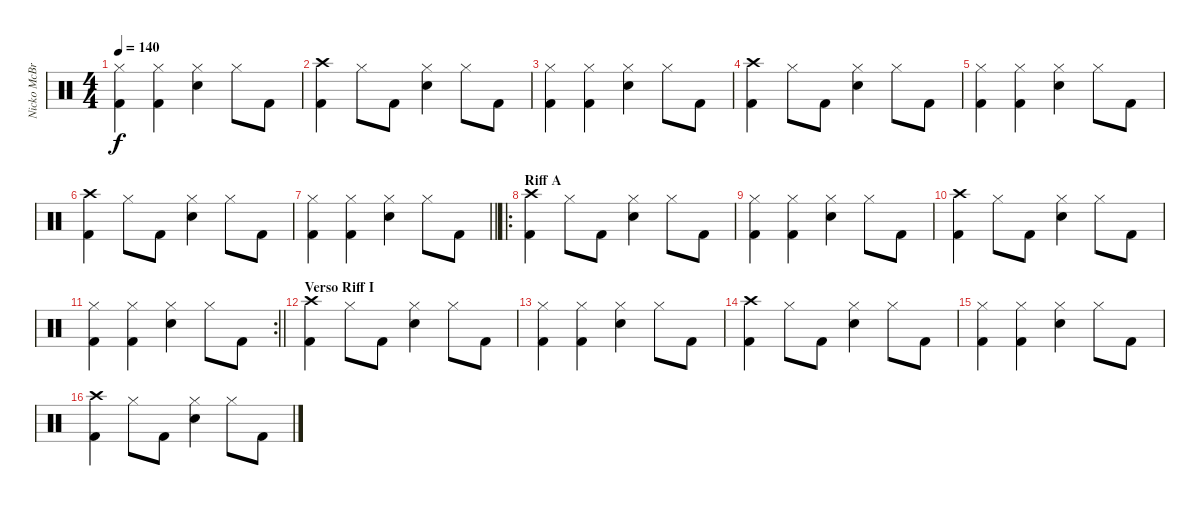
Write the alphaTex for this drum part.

\track ("Nicko McBrain" "Nicko McBr") {instrument percussion}
\staff {score}
\articulation defaults
\ts (4 4)
\tempo 140
\clef neutral
\ks c
("Kick (hit) 2" "Hi-Hat (closed)").4{dy f} ("Kick (hit) 2" "Hi-Hat (closed)").4 ("Snare (hit) 2" "Hi-Hat (closed)").4 "Hi-Hat (closed)".8 "Kick (hit) 2".8 |
("Kick (hit) 2" "Crash high (hit)").4 "Hi-Hat (closed)".8 "Kick (hit) 2".8 ("Snare (hit) 2" "Hi-Hat (closed)").4 "Hi-Hat (closed)".8 "Kick (hit) 2".8 |
("Kick (hit) 2" "Hi-Hat (closed)").4 ("Kick (hit) 2" "Hi-Hat (closed)").4 ("Snare (hit) 2" "Hi-Hat (closed)").4 "Hi-Hat (closed)".8 "Kick (hit) 2".8 |
("Kick (hit) 2" "Crash high (hit)").4 "Hi-Hat (closed)".8 "Kick (hit) 2".8 ("Snare (hit) 2" "Hi-Hat (closed)").4 "Hi-Hat (closed)".8 "Kick (hit) 2".8 |
("Kick (hit) 2" "Hi-Hat (closed)").4 ("Kick (hit) 2" "Hi-Hat (closed)").4 ("Snare (hit) 2" "Hi-Hat (closed)").4 "Hi-Hat (closed)".8 "Kick (hit) 2".8 |
("Kick (hit) 2" "Crash high (hit)").4 "Hi-Hat (closed)".8 "Kick (hit) 2".8 ("Snare (hit) 2" "Hi-Hat (closed)").4 "Hi-Hat (closed)".8 "Kick (hit) 2".8 |
\barLineRight lightlight
("Kick (hit) 2" "Hi-Hat (closed)").4 ("Kick (hit) 2" "Hi-Hat (closed)").4 ("Snare (hit) 2" "Hi-Hat (closed)").4 "Hi-Hat (closed)".8 "Kick (hit) 2".8 |
\ro
\section ("" "Riff A")
("Kick (hit) 2" "Crash high (hit)").4 "Hi-Hat (closed)".8 "Kick (hit) 2".8 ("Snare (hit) 2" "Hi-Hat (closed)").4 "Hi-Hat (closed)".8 "Kick (hit) 2".8 |
("Kick (hit) 2" "Hi-Hat (closed)").4 ("Kick (hit) 2" "Hi-Hat (closed)").4 ("Snare (hit) 2" "Hi-Hat (closed)").4 "Hi-Hat (closed)".8 "Kick (hit) 2".8 |
("Kick (hit) 2" "Crash high (hit)").4 "Hi-Hat (closed)".8 "Kick (hit) 2".8 ("Snare (hit) 2" "Hi-Hat (closed)").4 "Hi-Hat (closed)".8 "Kick (hit) 2".8 |
\rc 2
\barLineRight lightlight
("Kick (hit) 2" "Hi-Hat (closed)").4 ("Kick (hit) 2" "Hi-Hat (closed)").4 ("Snare (hit) 2" "Hi-Hat (closed)").4 "Hi-Hat (closed)".8 "Kick (hit) 2".8 |
\section ("" "Verso Riff I")
("Kick (hit) 2" "Crash high (hit)").4 "Hi-Hat (closed)".8 "Kick (hit) 2".8 ("Snare (hit) 2" "Hi-Hat (closed)").4 "Hi-Hat (closed)".8 "Kick (hit) 2".8 |
("Kick (hit) 2" "Hi-Hat (closed)").4 ("Kick (hit) 2" "Hi-Hat (closed)").4 ("Snare (hit) 2" "Hi-Hat (closed)").4 "Hi-Hat (closed)".8 "Kick (hit) 2".8 |
("Kick (hit) 2" "Crash high (hit)").4 "Hi-Hat (closed)".8 "Kick (hit) 2".8 ("Snare (hit) 2" "Hi-Hat (closed)").4 "Hi-Hat (closed)".8 "Kick (hit) 2".8 |
("Kick (hit) 2" "Hi-Hat (closed)").4 ("Kick (hit) 2" "Hi-Hat (closed)").4 ("Snare (hit) 2" "Hi-Hat (closed)").4 "Hi-Hat (closed)".8 "Kick (hit) 2".8 |
("Kick (hit) 2" "Crash high (hit)").4 "Hi-Hat (closed)".8 "Kick (hit) 2".8 ("Snare (hit) 2" "Hi-Hat (closed)").4 "Hi-Hat (closed)".8 "Kick (hit) 2".8
